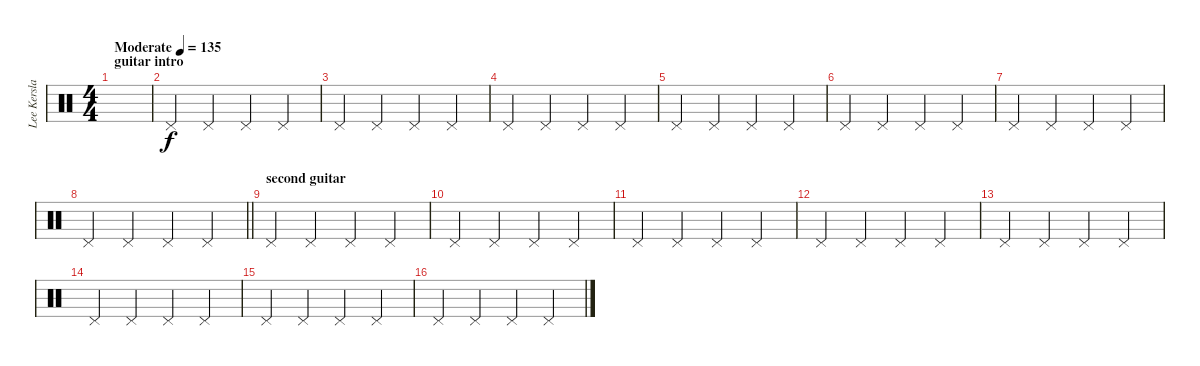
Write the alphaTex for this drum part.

\track ("Lee Kerslake (drums)" "Lee Kersla") {instrument percussion}
\staff {score}
\articulation defaults
\ts (4 4)
\section ("" "guitar intro")
\tempo (135 "Moderate")
\clef neutral
\ks c
|
"Pedal Hi-Hat (hit)".4 "Pedal Hi-Hat (hit)".4 "Pedal Hi-Hat (hit)".4 "Pedal Hi-Hat (hit)".4 |
"Pedal Hi-Hat (hit)".4 "Pedal Hi-Hat (hit)".4 "Pedal Hi-Hat (hit)".4 "Pedal Hi-Hat (hit)".4 |
"Pedal Hi-Hat (hit)".4 "Pedal Hi-Hat (hit)".4 "Pedal Hi-Hat (hit)".4 "Pedal Hi-Hat (hit)".4 |
"Pedal Hi-Hat (hit)".4 "Pedal Hi-Hat (hit)".4 "Pedal Hi-Hat (hit)".4 "Pedal Hi-Hat (hit)".4 |
"Pedal Hi-Hat (hit)".4 "Pedal Hi-Hat (hit)".4 "Pedal Hi-Hat (hit)".4 "Pedal Hi-Hat (hit)".4 |
"Pedal Hi-Hat (hit)".4 "Pedal Hi-Hat (hit)".4 "Pedal Hi-Hat (hit)".4 "Pedal Hi-Hat (hit)".4 |
\barLineRight lightlight "Pedal Hi-Hat (hit)".4 "Pedal Hi-Hat (hit)".4 "Pedal Hi-Hat (hit)".4 "Pedal Hi-Hat (hit)".4
|
\section ("" "second guitar")
"Pedal Hi-Hat (hit)".4 "Pedal Hi-Hat (hit)".4 "Pedal Hi-Hat (hit)".4 "Pedal Hi-Hat (hit)".4 |
"Pedal Hi-Hat (hit)".4 "Pedal Hi-Hat (hit)".4 "Pedal Hi-Hat (hit)".4 "Pedal Hi-Hat (hit)".4 |
"Pedal Hi-Hat (hit)".4 "Pedal Hi-Hat (hit)".4 "Pedal Hi-Hat (hit)".4 "Pedal Hi-Hat (hit)".4 |
"Pedal Hi-Hat (hit)".4 "Pedal Hi-Hat (hit)".4 "Pedal Hi-Hat (hit)".4 "Pedal Hi-Hat (hit)".4 |
"Pedal Hi-Hat (hit)".4 "Pedal Hi-Hat (hit)".4 "Pedal Hi-Hat (hit)".4 "Pedal Hi-Hat (hit)".4 |
"Pedal Hi-Hat (hit)".4 "Pedal Hi-Hat (hit)".4 "Pedal Hi-Hat (hit)".4 "Pedal Hi-Hat (hit)".4 |
"Pedal Hi-Hat (hit)".4 "Pedal Hi-Hat (hit)".4 "Pedal Hi-Hat (hit)".4 "Pedal Hi-Hat (hit)".4 |
"Pedal Hi-Hat (hit)".4 "Pedal Hi-Hat (hit)".4 "Pedal Hi-Hat (hit)".4 "Pedal Hi-Hat (hit)".4
